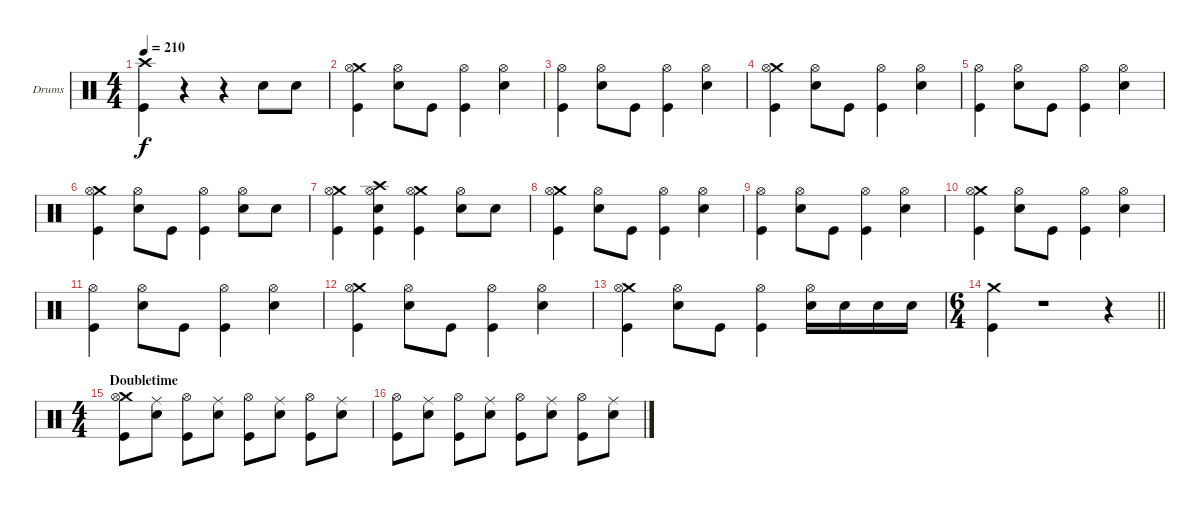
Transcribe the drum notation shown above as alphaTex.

\bracketExtendMode groupsimilarinstruments
\firstSystemTrackNameOrientation horizontal
\otherSystemsTrackNameOrientation horizontal
\track ("Drumkit" "Drums") {instrument percussion}
\staff {score}
\articulation defaults
\ts (4 4)
\tempo 210
\clef neutral
\ks c
("Crash high (hit)" "Kick (hit)").4{dy f} r.4 r.4 "Snare (hit) 2".8 "Snare (hit) 2".8 |
("Crash medium (hit)" "Hi-Hat (open)" "Kick (hit)").4 ("Hi-Hat (open)" "Snare (hit) 2").8 "Kick (hit)".8 ("Hi-Hat (open)" "Kick (hit)").4 ("Hi-Hat (open)" "Snare (hit) 2").4 |
("Hi-Hat (open)" "Kick (hit)").4 ("Hi-Hat (open)" "Snare (hit) 2").8 "Kick (hit)".8 ("Hi-Hat (open)" "Kick (hit)").4 ("Hi-Hat (open)" "Snare (hit) 2").4 |
("Crash medium (hit)" "Hi-Hat (open)" "Kick (hit)").4 ("Hi-Hat (open)" "Snare (hit) 2").8 "Kick (hit)".8 ("Hi-Hat (open)" "Kick (hit)").4 ("Hi-Hat (open)" "Snare (hit) 2").4 |
("Hi-Hat (open)" "Kick (hit)").4 ("Hi-Hat (open)" "Snare (hit) 2").8 "Kick (hit)".8 ("Hi-Hat (open)" "Kick (hit)").4 ("Hi-Hat (open)" "Snare (hit) 2").4 |
("Crash medium (hit)" "Hi-Hat (open)" "Kick (hit)").4 ("Hi-Hat (open)" "Snare (hit) 2").8 "Kick (hit)".8 ("Hi-Hat (open)" "Kick (hit)").4 ("Hi-Hat (open)" "Snare (hit) 2").8 "Snare (hit) 2".8 |
("Crash medium (hit)" "Hi-Hat (open)" "Kick (hit)").4 ("Crash high (hit)" "Hi-Hat (open)" "Snare (hit) 2" "Kick (hit)").4 ("Crash medium (hit)" "Hi-Hat (open)" "Kick (hit)").4 ("Hi-Hat (open)" "Snare (hit) 2").8 "Snare (hit) 2".8 |
("Crash medium (hit)" "Hi-Hat (open)" "Kick (hit)").4 ("Hi-Hat (open)" "Snare (hit) 2").8 "Kick (hit)".8 ("Hi-Hat (open)" "Kick (hit)").4 ("Hi-Hat (open)" "Snare (hit) 2").4 |
("Hi-Hat (open)" "Kick (hit)").4 ("Hi-Hat (open)" "Snare (hit) 2").8 "Kick (hit)".8 ("Hi-Hat (open)" "Kick (hit)").4 ("Hi-Hat (open)" "Snare (hit) 2").4 |
("Crash medium (hit)" "Hi-Hat (open)" "Kick (hit)").4 ("Hi-Hat (open)" "Snare (hit) 2").8 "Kick (hit)".8 ("Hi-Hat (open)" "Kick (hit)").4 ("Hi-Hat (open)" "Snare (hit) 2").4 |
("Hi-Hat (open)" "Kick (hit)").4 ("Hi-Hat (open)" "Snare (hit) 2").8 "Kick (hit)".8 ("Hi-Hat (open)" "Kick (hit)").4 ("Hi-Hat (open)" "Snare (hit) 2").4 |
("Crash medium (hit)" "Hi-Hat (open)" "Kick (hit)").4 ("Hi-Hat (open)" "Snare (hit) 2").8 "Kick (hit)".8 ("Hi-Hat (open)" "Kick (hit)").4 ("Hi-Hat (open)" "Snare (hit) 2").4 |
("Crash medium (hit)" "Hi-Hat (open)" "Kick (hit)").4 ("Hi-Hat (open)" "Snare (hit) 2").8 "Kick (hit)".8 ("Hi-Hat (open)" "Kick (hit)").4 ("Hi-Hat (open)" "Snare (hit) 2").16 "Snare (hit) 2".16 "Snare (hit) 2".16 "Snare (hit) 2".16 |
\ts (6 4)
\beaming (8 2 2 2 6)
\barLineRight lightlight
("Crash medium (hit)" "Kick (hit)").4 r.1 r.4 |
\ts (4 4)
\beaming (8 2 2 2 2)
\section ("" "Doubletime")
("Crash medium (hit)" "Hi-Hat (open)" "Kick (hit)").8 ("Ride (middle)" "Snare (hit) 2").8 ("Hi-Hat (open)" "Kick (hit)").8 ("Ride (middle)" "Snare (hit) 2").8 ("Hi-Hat (open)" "Kick (hit)").8 ("Ride (middle)" "Snare (hit) 2").8 ("Hi-Hat (open)" "Kick (hit)").8 ("Ride (middle)" "Snare (hit) 2").8 |
("Hi-Hat (open)" "Kick (hit)").8 ("Ride (middle)" "Snare (hit) 2").8 ("Hi-Hat (open)" "Kick (hit)").8 ("Ride (middle)" "Snare (hit) 2").8 ("Hi-Hat (open)" "Kick (hit)").8 ("Ride (middle)" "Snare (hit) 2").8 ("Hi-Hat (open)" "Kick (hit)").8 ("Ride (middle)" "Snare (hit) 2").8
